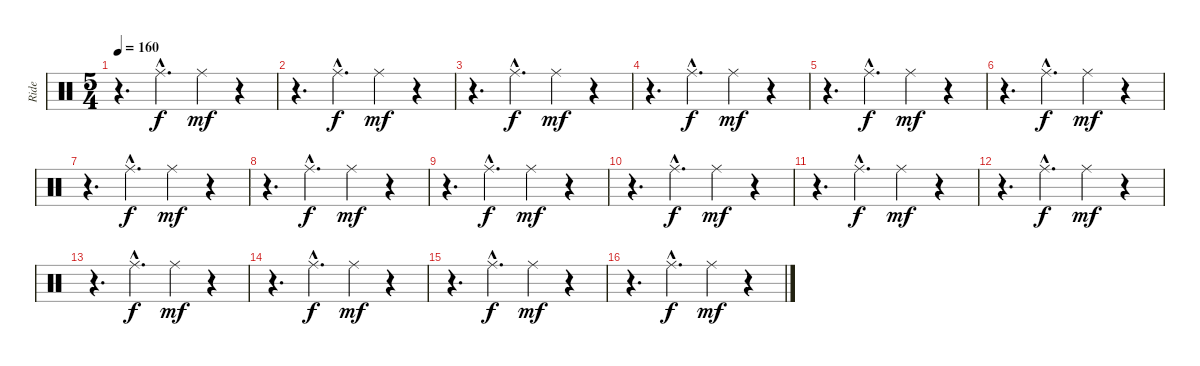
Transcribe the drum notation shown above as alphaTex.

\track ("Ride" "Ride") {instrument percussion}
\staff {score}
\articulation defaults
\ts (5 4)
\tempo 160
\clef neutral
\ks c
r.4{d dy mf} "Ride (middle)"{hac}.4{d dy f} "Ride (middle)".4{dy mf} r.4 |
r.4{d} "Ride (middle)"{hac}.4{d dy f} "Ride (middle)".4{dy mf} r.4 |
r.4{d} "Ride (middle)"{hac}.4{d dy f} "Ride (middle)".4{dy mf} r.4 |
r.4{d} "Ride (middle)"{hac}.4{d dy f} "Ride (middle)".4{dy mf} r.4 |
r.4{d} "Ride (middle)"{hac}.4{d dy f} "Ride (middle)".4{dy mf} r.4 |
r.4{d} "Ride (middle)"{hac}.4{d dy f} "Ride (middle)".4{dy mf} r.4 |
r.4{d} "Ride (middle)"{hac}.4{d dy f} "Ride (middle)".4{dy mf} r.4 |
r.4{d} "Ride (middle)"{hac}.4{d dy f} "Ride (middle)".4{dy mf} r.4 |
r.4{d} "Ride (middle)"{hac}.4{d dy f} "Ride (middle)".4{dy mf} r.4 |
r.4{d} "Ride (middle)"{hac}.4{d dy f} "Ride (middle)".4{dy mf} r.4 |
r.4{d} "Ride (middle)"{hac}.4{d dy f} "Ride (middle)".4{dy mf} r.4 |
r.4{d} "Ride (middle)"{hac}.4{d dy f} "Ride (middle)".4{dy mf} r.4 |
r.4{d} "Ride (middle)"{hac}.4{d dy f} "Ride (middle)".4{dy mf} r.4 |
r.4{d} "Ride (middle)"{hac}.4{d dy f} "Ride (middle)".4{dy mf} r.4 |
r.4{d} "Ride (middle)"{hac}.4{d dy f} "Ride (middle)".4{dy mf} r.4 |
r.4{d} "Ride (middle)"{hac}.4{d dy f} "Ride (middle)".4{dy mf} r.4
